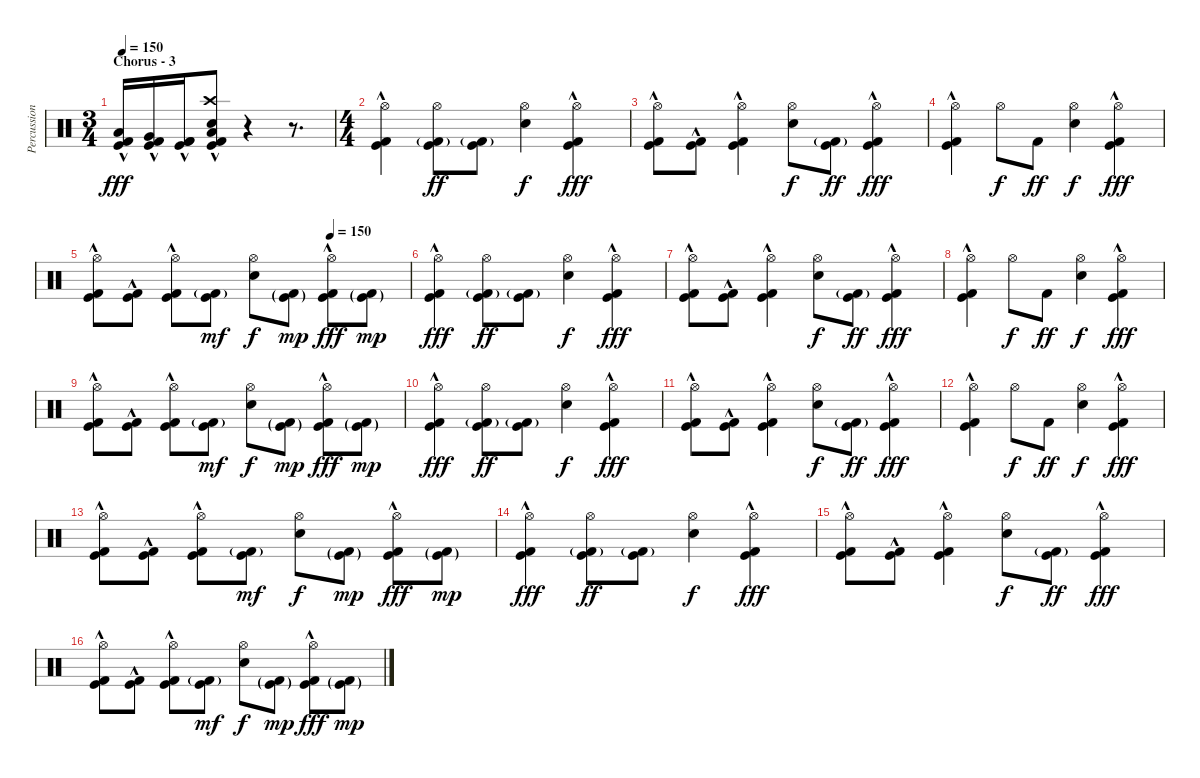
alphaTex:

\track ("Percussion" "Percussion") {instrument percussion}
\staff {score}
\articulation defaults
\ts (3 4)
\section ("" "Chorus - 3")
\tempo 150
\clef neutral
\ks c
("Low Floor Tom (hit)"{hac} "Kick (hit) 2"{hac} "Kick (hit)").16{dy fff volume 16} ("Very Low Tom (hit)"{hac} "Kick (hit) 2"{hac} "Kick (hit)").16 ("Kick (hit) 2"{hac} "Kick (hit) 2"{hac} "Kick (hit)").16 ("Crash high (hit)"{hac} "Electric Snare (hit)"{hac} "Low Floor Tom (hit)"{hac} "Kick (hit) 2"{hac} "Kick (hit)").8 r.4 r.8{d} |
\ts (4 4)
("Hi-Hat (open)" "Kick (hit) 2"{hac} "Kick (hit)"{hac}).4 ("Hi-Hat (open)" "Kick (hit) 2"{g} "Kick (hit)").8{dy ff} ("Kick (hit) 2"{g} "Kick (hit)").8 ("Hi-Hat (open)" "Electric Snare (hit)").4{dy f} ("Hi-Hat (open)" "Kick (hit) 2"{hac} "Kick (hit)"{hac}).4{dy fff} |
("Hi-Hat (open)" "Kick (hit) 2"{hac} "Kick (hit)"{hac}).8 ("Kick (hit) 2"{hac} "Kick (hit)").8 ("Hi-Hat (open)" "Kick (hit) 2"{hac} "Kick (hit)").4 ("Hi-Hat (open)" "Electric Snare (hit)").8{dy f} ("Kick (hit) 2"{g} "Kick (hit)").8{dy ff} ("Hi-Hat (open)" "Kick (hit) 2"{hac} "Kick (hit)"{hac}).4{dy fff} |
("Hi-Hat (open)" "Kick (hit) 2"{hac} "Kick (hit)"{hac}).4 "Hi-Hat (open)".8{dy f} "Kick (hit) 2".8{dy ff} ("Hi-Hat (open)" "Electric Snare (hit)").4{dy f} ("Hi-Hat (open)" "Kick (hit) 2"{hac} "Kick (hit)"{hac}).4{dy fff} |
\tempo (150 0.75)
("Hi-Hat (open)" "Kick (hit) 2"{hac} "Kick (hit)"{hac}).8 ("Kick (hit) 2"{hac} "Kick (hit)").8 ("Hi-Hat (open)" "Kick (hit) 2"{hac} "Kick (hit)").8 ("Kick (hit) 2"{g} "Kick (hit)").8{dy mf} ("Hi-Hat (open)" "Electric Snare (hit)").8{dy f} ("Kick (hit) 2"{g} "Kick (hit)"{g}).8{dy mp} ("Hi-Hat (open)" "Kick (hit) 2"{hac} "Kick (hit)"{hac}).8{dy fff} ("Kick (hit) 2"{g} "Kick (hit)"{g}).8{dy mp} |
("Hi-Hat (open)" "Kick (hit) 2"{hac} "Kick (hit)"{hac}).4{dy fff} ("Hi-Hat (open)" "Kick (hit) 2"{g} "Kick (hit)").8{dy ff} ("Kick (hit) 2"{g} "Kick (hit)").8 ("Hi-Hat (open)" "Electric Snare (hit)").4{dy f} ("Hi-Hat (open)" "Kick (hit) 2"{hac} "Kick (hit)"{hac}).4{dy fff} |
("Hi-Hat (open)" "Kick (hit) 2"{hac} "Kick (hit)"{hac}).8 ("Kick (hit) 2"{hac} "Kick (hit)").8 ("Hi-Hat (open)" "Kick (hit) 2"{hac} "Kick (hit)").4 ("Hi-Hat (open)" "Electric Snare (hit)").8{dy f} ("Kick (hit) 2"{g} "Kick (hit)").8{dy ff} ("Hi-Hat (open)" "Kick (hit) 2"{hac} "Kick (hit)"{hac}).4{dy fff} |
("Hi-Hat (open)" "Kick (hit) 2"{hac} "Kick (hit)"{hac}).4 "Hi-Hat (open)".8{dy f} "Kick (hit) 2".8{dy ff} ("Hi-Hat (open)" "Electric Snare (hit)").4{dy f} ("Hi-Hat (open)" "Kick (hit) 2"{hac} "Kick (hit)"{hac}).4{dy fff} |
("Hi-Hat (open)" "Kick (hit) 2"{hac} "Kick (hit)"{hac}).8 ("Kick (hit) 2"{hac} "Kick (hit)").8 ("Hi-Hat (open)" "Kick (hit) 2"{hac} "Kick (hit)").8 ("Kick (hit) 2"{g} "Kick (hit)").8{dy mf} ("Hi-Hat (open)" "Electric Snare (hit)").8{dy f} ("Kick (hit) 2"{g} "Kick (hit)"{g}).8{dy mp} ("Hi-Hat (open)" "Kick (hit) 2"{hac} "Kick (hit)"{hac}).8{dy fff} ("Kick (hit) 2"{g} "Kick (hit)"{g}).8{dy mp} |
("Hi-Hat (open)" "Kick (hit) 2"{hac} "Kick (hit)"{hac}).4{dy fff} ("Hi-Hat (open)" "Kick (hit) 2"{g} "Kick (hit)").8{dy ff} ("Kick (hit) 2"{g} "Kick (hit)").8 ("Hi-Hat (open)" "Electric Snare (hit)").4{dy f} ("Hi-Hat (open)" "Kick (hit) 2"{hac} "Kick (hit)"{hac}).4{dy fff} |
("Hi-Hat (open)" "Kick (hit) 2"{hac} "Kick (hit)"{hac}).8 ("Kick (hit) 2"{hac} "Kick (hit)").8 ("Hi-Hat (open)" "Kick (hit) 2"{hac} "Kick (hit)").4 ("Hi-Hat (open)" "Electric Snare (hit)").8{dy f} ("Kick (hit) 2"{g} "Kick (hit)").8{dy ff} ("Hi-Hat (open)" "Kick (hit) 2"{hac} "Kick (hit)"{hac}).4{dy fff} |
("Hi-Hat (open)" "Kick (hit) 2"{hac} "Kick (hit)"{hac}).4 "Hi-Hat (open)".8{dy f} "Kick (hit) 2".8{dy ff} ("Hi-Hat (open)" "Electric Snare (hit)").4{dy f} ("Hi-Hat (open)" "Kick (hit) 2"{hac} "Kick (hit)"{hac}).4{dy fff} |
("Hi-Hat (open)" "Kick (hit) 2"{hac} "Kick (hit)"{hac}).8 ("Kick (hit) 2"{hac} "Kick (hit)").8 ("Hi-Hat (open)" "Kick (hit) 2"{hac} "Kick (hit)").8 ("Kick (hit) 2"{g} "Kick (hit)").8{dy mf} ("Hi-Hat (open)" "Electric Snare (hit)").8{dy f} ("Kick (hit) 2"{g} "Kick (hit)"{g}).8{dy mp} ("Hi-Hat (open)" "Kick (hit) 2"{hac} "Kick (hit)"{hac}).8{dy fff} ("Kick (hit) 2"{g} "Kick (hit)"{g}).8{dy mp} |
("Hi-Hat (open)" "Kick (hit) 2"{hac} "Kick (hit)"{hac}).4{dy fff} ("Hi-Hat (open)" "Kick (hit) 2"{g} "Kick (hit)").8{dy ff} ("Kick (hit) 2"{g} "Kick (hit)").8 ("Hi-Hat (open)" "Electric Snare (hit)").4{dy f} ("Hi-Hat (open)" "Kick (hit) 2"{hac} "Kick (hit)"{hac}).4{dy fff} |
("Hi-Hat (open)" "Kick (hit) 2"{hac} "Kick (hit)"{hac}).8 ("Kick (hit) 2"{hac} "Kick (hit)").8 ("Hi-Hat (open)" "Kick (hit) 2"{hac} "Kick (hit)").4 ("Hi-Hat (open)" "Electric Snare (hit)").8{dy f} ("Kick (hit) 2"{g} "Kick (hit)").8{dy ff} ("Hi-Hat (open)" "Kick (hit) 2"{hac} "Kick (hit)"{hac}).4{dy fff} |
("Hi-Hat (open)" "Kick (hit) 2"{hac} "Kick (hit)"{hac}).8 ("Kick (hit) 2"{hac} "Kick (hit)").8 ("Hi-Hat (open)" "Kick (hit) 2"{hac} "Kick (hit)").8 ("Kick (hit) 2"{g} "Kick (hit)").8{dy mf} ("Hi-Hat (open)" "Electric Snare (hit)").8{dy f} ("Kick (hit) 2"{g} "Kick (hit)"{g}).8{dy mp} ("Hi-Hat (open)" "Kick (hit) 2"{hac} "Kick (hit)"{hac}).8{dy fff} ("Kick (hit) 2"{g} "Kick (hit)"{g}).8{dy mp}
